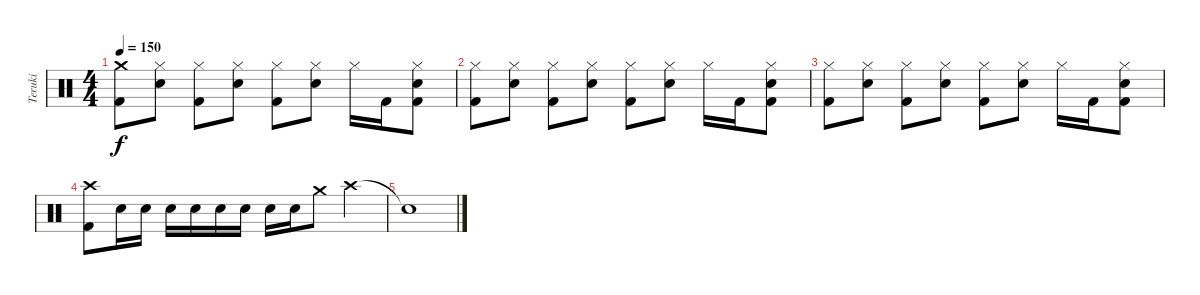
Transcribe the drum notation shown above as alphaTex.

\track ("Teruki" "Teruki") {instrument percussion}
\staff {score}
\articulation defaults
\ts (4 4)
\tempo 150
\clef neutral
\ks c
("Crash medium (hit)" "Kick (hit) 2").8{dy f} ("Hi-Hat (closed)" "Electric Snare (hit)").8 ("Hi-Hat (closed)" "Kick (hit) 2").8 ("Hi-Hat (closed)" "Electric Snare (hit)").8 ("Hi-Hat (closed)" "Kick (hit) 2").8 ("Hi-Hat (closed)" "Electric Snare (hit)").8 "Hi-Hat (closed)".16 "Kick (hit) 2".16 ("Hi-Hat (closed)" "Electric Snare (hit)" "Kick (hit) 2").8 |
("Hi-Hat (closed)" "Kick (hit) 2").8 ("Hi-Hat (closed)" "Electric Snare (hit)").8 ("Hi-Hat (closed)" "Kick (hit) 2").8 ("Hi-Hat (closed)" "Electric Snare (hit)").8 ("Hi-Hat (closed)" "Kick (hit) 2").8 ("Hi-Hat (closed)" "Electric Snare (hit)").8 "Hi-Hat (closed)".16 "Kick (hit) 2".16 ("Hi-Hat (closed)" "Electric Snare (hit)" "Kick (hit) 2").8 |
("Hi-Hat (closed)" "Kick (hit) 2").8 ("Hi-Hat (closed)" "Electric Snare (hit)").8 ("Hi-Hat (closed)" "Kick (hit) 2").8 ("Hi-Hat (closed)" "Electric Snare (hit)").8 ("Hi-Hat (closed)" "Kick (hit) 2").8 ("Hi-Hat (closed)" "Electric Snare (hit)").8 "Hi-Hat (closed)".16 "Kick (hit) 2".16 ("Hi-Hat (closed)" "Electric Snare (hit)" "Kick (hit) 2").8 |
("Crash high (hit)" "Kick (hit) 2").8 "Electric Snare (hit)".16 "Electric Snare (hit)".16 "Electric Snare (hit)".16 "Electric Snare (hit)".16 "Electric Snare (hit)".16 "Electric Snare (hit)".16 "Electric Snare (hit)".16 "Electric Snare (hit)".16 "Crash medium (hit)".8 "Crash high (hit)".4 |
"Snare (hit)"{t}.1
